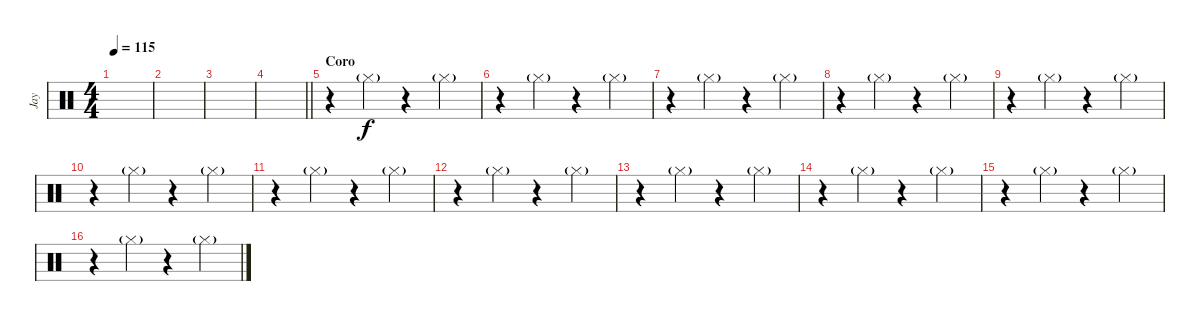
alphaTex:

\track ("Jay" "Jay") {instrument percussion}
\staff {score}
\articulation defaults
\ts (4 4)
\tempo 115
\clef neutral
\ks c
|
|
|
\barLineRight lightlight
|
\section ("" "Coro")
r.4 "Hi-Hat (closed)"{g}.4 r.4 "Hi-Hat (closed)"{g}.4 |
r.4 "Hi-Hat (closed)"{g}.4 r.4 "Hi-Hat (closed)"{g}.4 |
r.4 "Hi-Hat (closed)"{g}.4 r.4 "Hi-Hat (closed)"{g}.4 |
r.4 "Hi-Hat (closed)"{g}.4 r.4 "Hi-Hat (closed)"{g}.4 |
r.4 "Hi-Hat (closed)"{g}.4 r.4 "Hi-Hat (closed)"{g}.4 |
r.4 "Hi-Hat (closed)"{g}.4 r.4 "Hi-Hat (closed)"{g}.4 |
r.4 "Hi-Hat (closed)"{g}.4 r.4 "Hi-Hat (closed)"{g}.4 |
r.4 "Hi-Hat (closed)"{g}.4 r.4 "Hi-Hat (closed)"{g}.4 |
r.4 "Hi-Hat (closed)"{g}.4 r.4 "Hi-Hat (closed)"{g}.4 |
r.4 "Hi-Hat (closed)"{g}.4 r.4 "Hi-Hat (closed)"{g}.4 |
r.4 "Hi-Hat (closed)"{g}.4 r.4 "Hi-Hat (closed)"{g}.4 |
r.4 "Hi-Hat (closed)"{g}.4 r.4 "Hi-Hat (closed)"{g}.4
